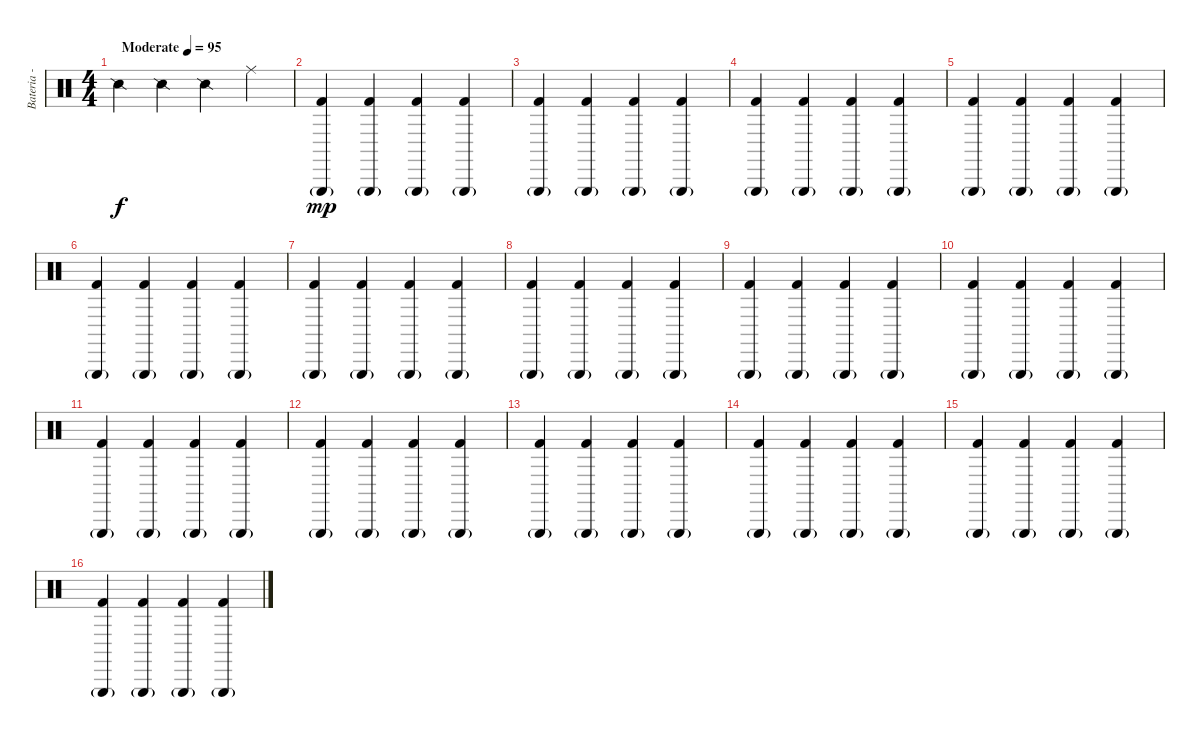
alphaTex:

\track ("Bateria - Alfonso André" "Bateria - ") {instrument percussion}
\staff {score}
\articulation defaults
\ts (4 4)
\tempo (95 "Moderate")
\clef neutral
\ks c "Snare (side stick) 2".4{dy f} "Snare (side stick) 2".4 "Snare (side stick) 2".4 "Ride (middle)".4
|
("Triangle (hit)"{g} "Kick (hit) 2").4{dy mp} ("Triangle (hit)"{g} "Kick (hit) 2").4 ("Triangle (hit)"{g} "Kick (hit) 2").4 ("Triangle (hit)"{g} "Kick (hit) 2").4 |
("Triangle (hit)"{g} "Kick (hit) 2").4 ("Triangle (hit)"{g} "Kick (hit) 2").4 ("Triangle (hit)"{g} "Kick (hit) 2").4 ("Triangle (hit)"{g} "Kick (hit) 2").4 |
("Triangle (hit)"{g} "Kick (hit) 2").4 ("Triangle (hit)"{g} "Kick (hit) 2").4 ("Triangle (hit)"{g} "Kick (hit) 2").4 ("Triangle (hit)"{g} "Kick (hit) 2").4 |
("Triangle (hit)"{g} "Kick (hit) 2").4 ("Triangle (hit)"{g} "Kick (hit) 2").4 ("Triangle (hit)"{g} "Kick (hit) 2").4 ("Triangle (hit)"{g} "Kick (hit) 2").4 |
("Triangle (hit)"{g} "Kick (hit) 2").4 ("Triangle (hit)"{g} "Kick (hit) 2").4 ("Triangle (hit)"{g} "Kick (hit) 2").4 ("Triangle (hit)"{g} "Kick (hit) 2").4 |
("Triangle (hit)"{g} "Kick (hit) 2").4 ("Triangle (hit)"{g} "Kick (hit) 2").4 ("Triangle (hit)"{g} "Kick (hit) 2").4 ("Triangle (hit)"{g} "Kick (hit) 2").4 |
("Triangle (hit)"{g} "Kick (hit) 2").4 ("Triangle (hit)"{g} "Kick (hit) 2").4 ("Triangle (hit)"{g} "Kick (hit) 2").4 ("Triangle (hit)"{g} "Kick (hit) 2").4 |
("Triangle (hit)"{g} "Kick (hit) 2").4 ("Triangle (hit)"{g} "Kick (hit) 2").4 ("Triangle (hit)"{g} "Kick (hit) 2").4 ("Triangle (hit)"{g} "Kick (hit) 2").4 |
("Triangle (hit)"{g} "Kick (hit) 2").4 ("Triangle (hit)"{g} "Kick (hit) 2").4 ("Triangle (hit)"{g} "Kick (hit) 2").4 ("Triangle (hit)"{g} "Kick (hit) 2").4 |
("Triangle (hit)"{g} "Kick (hit) 2").4 ("Triangle (hit)"{g} "Kick (hit) 2").4 ("Triangle (hit)"{g} "Kick (hit) 2").4 ("Triangle (hit)"{g} "Kick (hit) 2").4 |
("Triangle (hit)"{g} "Kick (hit) 2").4 ("Triangle (hit)"{g} "Kick (hit) 2").4 ("Triangle (hit)"{g} "Kick (hit) 2").4 ("Triangle (hit)"{g} "Kick (hit) 2").4 |
("Triangle (hit)"{g} "Kick (hit) 2").4 ("Triangle (hit)"{g} "Kick (hit) 2").4 ("Triangle (hit)"{g} "Kick (hit) 2").4 ("Triangle (hit)"{g} "Kick (hit) 2").4 |
("Triangle (hit)"{g} "Kick (hit) 2").4 ("Triangle (hit)"{g} "Kick (hit) 2").4 ("Triangle (hit)"{g} "Kick (hit) 2").4 ("Triangle (hit)"{g} "Kick (hit) 2").4 |
("Triangle (hit)"{g} "Kick (hit) 2").4 ("Triangle (hit)"{g} "Kick (hit) 2").4 ("Triangle (hit)"{g} "Kick (hit) 2").4 ("Triangle (hit)"{g} "Kick (hit) 2").4 |
("Triangle (hit)"{g} "Kick (hit) 2").4 ("Triangle (hit)"{g} "Kick (hit) 2").4 ("Triangle (hit)"{g} "Kick (hit) 2").4 ("Triangle (hit)"{g} "Kick (hit) 2").4
